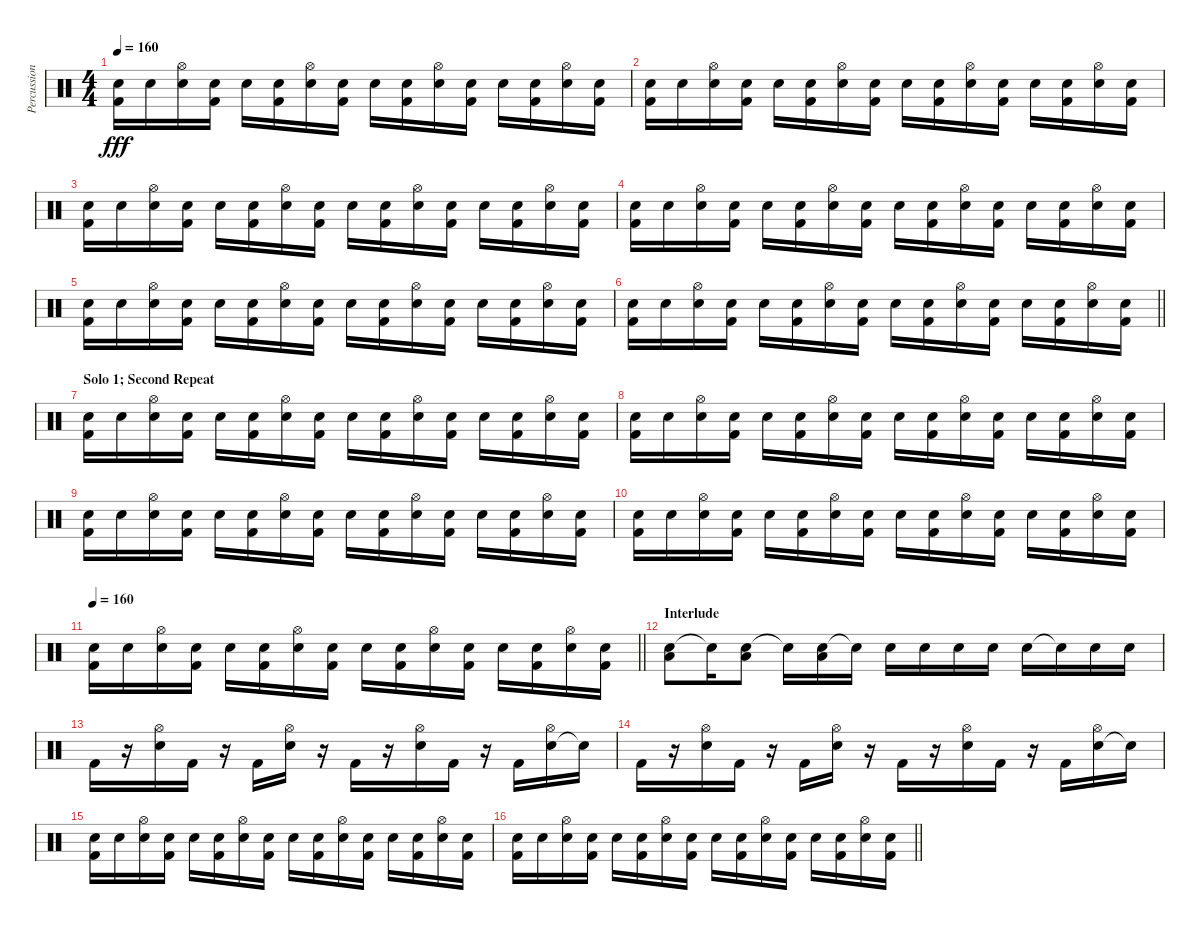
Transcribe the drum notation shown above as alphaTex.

\track ("Percussion" "Percussion") {instrument percussion}
\staff {score}
\articulation defaults
\ts (4 4)
\tempo 160
\clef neutral
\ks c
("Snare (hit) 2" "Kick (hit) 2").16{dy fff} "Snare (hit) 2".16 ("Snare (hit) 2" "Hi-Hat (open)").16 ("Snare (hit) 2" "Kick (hit) 2").16 "Snare (hit) 2".16 ("Snare (hit) 2" "Kick (hit) 2").16 ("Snare (hit) 2" "Hi-Hat (open)").16 ("Snare (hit) 2" "Kick (hit) 2").16 "Snare (hit) 2".16 ("Snare (hit) 2" "Kick (hit) 2").16 ("Snare (hit) 2" "Hi-Hat (open)").16 ("Snare (hit) 2" "Kick (hit) 2").16 "Snare (hit) 2".16 ("Snare (hit) 2" "Kick (hit) 2").16 ("Snare (hit) 2" "Hi-Hat (open)").16 ("Snare (hit) 2" "Kick (hit) 2").16 |
("Snare (hit) 2" "Kick (hit) 2").16 "Snare (hit) 2".16 ("Snare (hit) 2" "Hi-Hat (open)").16 ("Snare (hit) 2" "Kick (hit) 2").16 "Snare (hit) 2".16 ("Snare (hit) 2" "Kick (hit) 2").16 ("Snare (hit) 2" "Hi-Hat (open)").16 ("Snare (hit) 2" "Kick (hit) 2").16 "Snare (hit) 2".16 ("Snare (hit) 2" "Kick (hit) 2").16 ("Snare (hit) 2" "Hi-Hat (open)").16 ("Snare (hit) 2" "Kick (hit) 2").16 "Snare (hit) 2".16 ("Snare (hit) 2" "Kick (hit) 2").16 ("Snare (hit) 2" "Hi-Hat (open)").16 ("Snare (hit) 2" "Kick (hit) 2").16 |
("Snare (hit) 2" "Kick (hit) 2").16 "Snare (hit) 2".16 ("Snare (hit) 2" "Hi-Hat (open)").16 ("Snare (hit) 2" "Kick (hit) 2").16 "Snare (hit) 2".16 ("Snare (hit) 2" "Kick (hit) 2").16 ("Snare (hit) 2" "Hi-Hat (open)").16 ("Snare (hit) 2" "Kick (hit) 2").16 "Snare (hit) 2".16 ("Snare (hit) 2" "Kick (hit) 2").16 ("Snare (hit) 2" "Hi-Hat (open)").16 ("Snare (hit) 2" "Kick (hit) 2").16 "Snare (hit) 2".16 ("Snare (hit) 2" "Kick (hit) 2").16 ("Snare (hit) 2" "Hi-Hat (open)").16 ("Snare (hit) 2" "Kick (hit) 2").16 |
("Snare (hit) 2" "Kick (hit) 2").16 "Snare (hit) 2".16 ("Snare (hit) 2" "Hi-Hat (open)").16 ("Snare (hit) 2" "Kick (hit) 2").16 "Snare (hit) 2".16 ("Snare (hit) 2" "Kick (hit) 2").16 ("Snare (hit) 2" "Hi-Hat (open)").16 ("Snare (hit) 2" "Kick (hit) 2").16 "Snare (hit) 2".16 ("Snare (hit) 2" "Kick (hit) 2").16 ("Snare (hit) 2" "Hi-Hat (open)").16 ("Snare (hit) 2" "Kick (hit) 2").16 "Snare (hit) 2".16 ("Snare (hit) 2" "Kick (hit) 2").16 ("Snare (hit) 2" "Hi-Hat (open)").16 ("Snare (hit) 2" "Kick (hit) 2").16 |
("Snare (hit) 2" "Kick (hit) 2").16{volume 10} "Snare (hit) 2".16 ("Snare (hit) 2" "Hi-Hat (open)").16 ("Snare (hit) 2" "Kick (hit) 2").16 "Snare (hit) 2".16 ("Snare (hit) 2" "Kick (hit) 2").16 ("Snare (hit) 2" "Hi-Hat (open)").16 ("Snare (hit) 2" "Kick (hit) 2").16 "Snare (hit) 2".16 ("Snare (hit) 2" "Kick (hit) 2").16 ("Snare (hit) 2" "Hi-Hat (open)").16 ("Snare (hit) 2" "Kick (hit) 2").16 "Snare (hit) 2".16 ("Snare (hit) 2" "Kick (hit) 2").16 ("Snare (hit) 2" "Hi-Hat (open)").16 ("Snare (hit) 2" "Kick (hit) 2").16 |
\barLineRight lightlight
("Snare (hit) 2" "Kick (hit) 2").16 "Snare (hit) 2".16 ("Snare (hit) 2" "Hi-Hat (open)").16 ("Snare (hit) 2" "Kick (hit) 2").16 "Snare (hit) 2".16 ("Snare (hit) 2" "Kick (hit) 2").16 ("Snare (hit) 2" "Hi-Hat (open)").16 ("Snare (hit) 2" "Kick (hit) 2").16 "Snare (hit) 2".16 ("Snare (hit) 2" "Kick (hit) 2").16 ("Snare (hit) 2" "Hi-Hat (open)").16 ("Snare (hit) 2" "Kick (hit) 2").16 "Snare (hit) 2".16 ("Snare (hit) 2" "Kick (hit) 2").16 ("Snare (hit) 2" "Hi-Hat (open)").16 ("Snare (hit) 2" "Kick (hit) 2").16 |
\section ("" "Solo 1; Second Repeat")
("Snare (hit) 2" "Kick (hit) 2").16 "Snare (hit) 2".16 ("Snare (hit) 2" "Hi-Hat (open)").16 ("Snare (hit) 2" "Kick (hit) 2").16 "Snare (hit) 2".16 ("Snare (hit) 2" "Kick (hit) 2").16 ("Snare (hit) 2" "Hi-Hat (open)").16 ("Snare (hit) 2" "Kick (hit) 2").16 "Snare (hit) 2".16 ("Snare (hit) 2" "Kick (hit) 2").16 ("Snare (hit) 2" "Hi-Hat (open)").16 ("Snare (hit) 2" "Kick (hit) 2").16 "Snare (hit) 2".16 ("Snare (hit) 2" "Kick (hit) 2").16 ("Snare (hit) 2" "Hi-Hat (open)").16 ("Snare (hit) 2" "Kick (hit) 2").16 |
("Snare (hit) 2" "Kick (hit) 2").16 "Snare (hit) 2".16 ("Snare (hit) 2" "Hi-Hat (open)").16 ("Snare (hit) 2" "Kick (hit) 2").16 "Snare (hit) 2".16 ("Snare (hit) 2" "Kick (hit) 2").16 ("Snare (hit) 2" "Hi-Hat (open)").16 ("Snare (hit) 2" "Kick (hit) 2").16 "Snare (hit) 2".16 ("Snare (hit) 2" "Kick (hit) 2").16 ("Snare (hit) 2" "Hi-Hat (open)").16 ("Snare (hit) 2" "Kick (hit) 2").16 "Snare (hit) 2".16 ("Snare (hit) 2" "Kick (hit) 2").16 ("Snare (hit) 2" "Hi-Hat (open)").16 ("Snare (hit) 2" "Kick (hit) 2").16 |
("Snare (hit) 2" "Kick (hit) 2").16 "Snare (hit) 2".16 ("Snare (hit) 2" "Hi-Hat (open)").16 ("Snare (hit) 2" "Kick (hit) 2").16 "Snare (hit) 2".16 ("Snare (hit) 2" "Kick (hit) 2").16 ("Snare (hit) 2" "Hi-Hat (open)").16 ("Snare (hit) 2" "Kick (hit) 2").16 "Snare (hit) 2".16 ("Snare (hit) 2" "Kick (hit) 2").16 ("Snare (hit) 2" "Hi-Hat (open)").16 ("Snare (hit) 2" "Kick (hit) 2").16 "Snare (hit) 2".16 ("Snare (hit) 2" "Kick (hit) 2").16 ("Snare (hit) 2" "Hi-Hat (open)").16 ("Snare (hit) 2" "Kick (hit) 2").16 |
("Snare (hit) 2" "Kick (hit) 2").16 "Snare (hit) 2".16 ("Snare (hit) 2" "Hi-Hat (open)").16 ("Snare (hit) 2" "Kick (hit) 2").16 "Snare (hit) 2".16 ("Snare (hit) 2" "Kick (hit) 2").16 ("Snare (hit) 2" "Hi-Hat (open)").16 ("Snare (hit) 2" "Kick (hit) 2").16 "Snare (hit) 2".16 ("Snare (hit) 2" "Kick (hit) 2").16 ("Snare (hit) 2" "Hi-Hat (open)").16 ("Snare (hit) 2" "Kick (hit) 2").16 "Snare (hit) 2".16 ("Snare (hit) 2" "Kick (hit) 2").16 ("Snare (hit) 2" "Hi-Hat (open)").16 ("Snare (hit) 2" "Kick (hit) 2").16 |
\tempo 160
\barLineRight lightlight
("Snare (hit) 2" "Kick (hit) 2").16 "Snare (hit) 2".16 ("Snare (hit) 2" "Hi-Hat (open)").16 ("Snare (hit) 2" "Kick (hit) 2").16 "Snare (hit) 2".16 ("Snare (hit) 2" "Kick (hit) 2").16 ("Snare (hit) 2" "Hi-Hat (open)").16 ("Snare (hit) 2" "Kick (hit) 2").16 "Snare (hit) 2".16 ("Snare (hit) 2" "Kick (hit) 2").16 ("Snare (hit) 2" "Hi-Hat (open)").16 ("Snare (hit) 2" "Kick (hit) 2").16 "Snare (hit) 2".16 ("Snare (hit) 2" "Kick (hit) 2").16 ("Snare (hit) 2" "Hi-Hat (open)").16 ("Snare (hit) 2" "Kick (hit) 2").16 |
\section ("" "Interlude")
("Snare (hit) 2" "Low Tom (hit)").8 "Snare (hit)"{t}.16 ("Snare (hit) 2" "Low Tom (hit)").8 "Snare (hit)"{t}.16 ("Snare (hit) 2" "Low Tom (hit)").16 "Snare (hit)"{t}.16 "Snare (hit) 2".16 "Snare (hit) 2".16 "Snare (hit) 2".16 "Snare (hit) 2".16 "Snare (hit) 2".16 "Snare (hit)"{t}.16 "Snare (hit) 2".16 "Snare (hit) 2".16 |
"Kick (hit) 2".16 r.16 ("Snare (hit) 2" "Hi-Hat (open)").16 "Kick (hit) 2".16 r.16 "Kick (hit) 2".16 ("Snare (hit) 2" "Hi-Hat (open)").16 r.16 "Kick (hit) 2".16 r.16 ("Snare (hit) 2" "Hi-Hat (open)").16 "Kick (hit) 2".16 r.16 "Kick (hit) 2".16 ("Snare (hit) 2" "Hi-Hat (open)").16 "Snare (hit)"{t}.16 |
"Kick (hit) 2".16 r.16 ("Snare (hit) 2" "Hi-Hat (open)").16 "Kick (hit) 2".16 r.16 "Kick (hit) 2".16 ("Snare (hit) 2" "Hi-Hat (open)").16 r.16 "Kick (hit) 2".16 r.16 ("Snare (hit) 2" "Hi-Hat (open)").16 "Kick (hit) 2".16 r.16 "Kick (hit) 2".16 ("Snare (hit) 2" "Hi-Hat (open)").16 "Snare (hit)"{t}.16 |
("Snare (hit) 2" "Kick (hit) 2").16 "Snare (hit) 2".16 ("Snare (hit) 2" "Hi-Hat (open)").16 ("Snare (hit) 2" "Kick (hit) 2").16 "Snare (hit) 2".16 ("Snare (hit) 2" "Kick (hit) 2").16 ("Snare (hit) 2" "Hi-Hat (open)").16 ("Snare (hit) 2" "Kick (hit) 2").16 "Snare (hit) 2".16 ("Snare (hit) 2" "Kick (hit) 2").16 ("Snare (hit) 2" "Hi-Hat (open)").16 ("Snare (hit) 2" "Kick (hit) 2").16 "Snare (hit) 2".16 ("Snare (hit) 2" "Kick (hit) 2").16 ("Snare (hit) 2" "Hi-Hat (open)").16 ("Snare (hit) 2" "Kick (hit) 2").16 |
\barLineRight lightlight
("Snare (hit) 2" "Kick (hit) 2").16 "Snare (hit) 2".16 ("Snare (hit) 2" "Hi-Hat (open)").16 ("Snare (hit) 2" "Kick (hit) 2").16 "Snare (hit) 2".16 ("Snare (hit) 2" "Kick (hit) 2").16 ("Snare (hit) 2" "Hi-Hat (open)").16 ("Snare (hit) 2" "Kick (hit) 2").16 "Snare (hit) 2".16 ("Snare (hit) 2" "Kick (hit) 2").16 ("Snare (hit) 2" "Hi-Hat (open)").16 ("Snare (hit) 2" "Kick (hit) 2").16 "Snare (hit) 2".16 ("Snare (hit) 2" "Kick (hit) 2").16 ("Snare (hit) 2" "Hi-Hat (open)").16 ("Snare (hit) 2" "Kick (hit) 2").16
